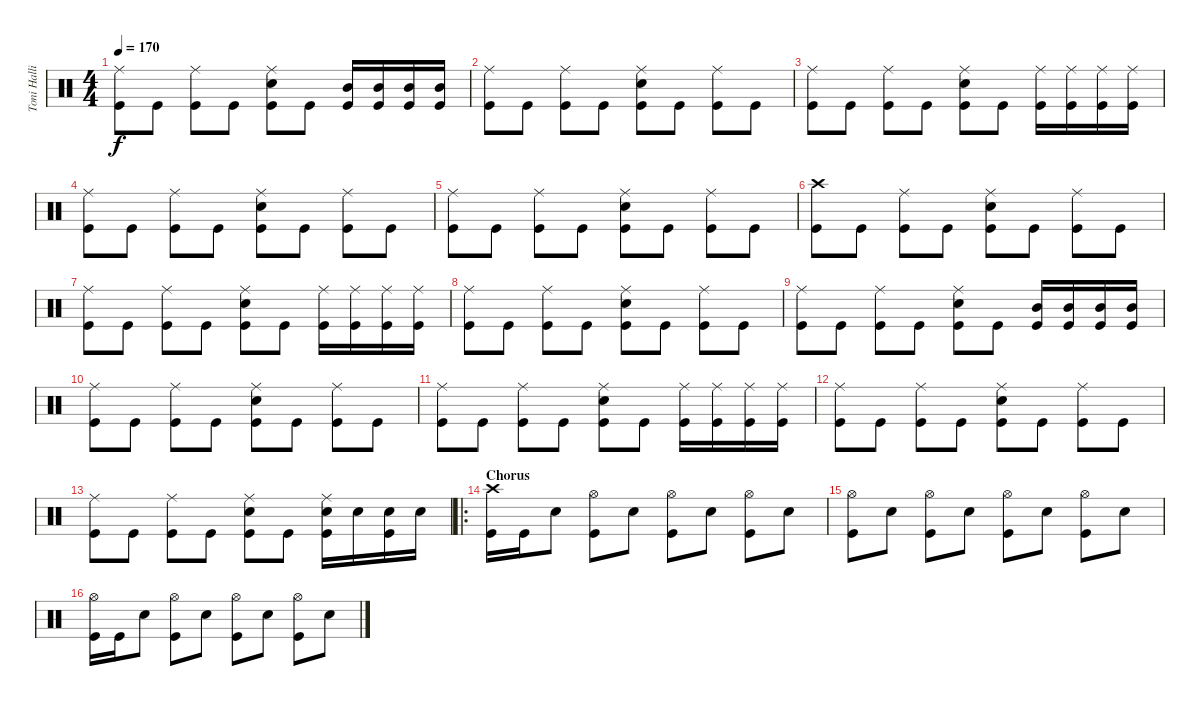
\track ("Toni Hallio" "Toni Halli") {instrument percussion}
\staff {score}
\articulation defaults
\ts (4 4)
\tempo 170
\clef neutral
\ks c
("Ride (middle)" "Kick (hit)").8{dy f} "Kick (hit)".8 ("Ride (middle)" "Kick (hit)").8 "Kick (hit)".8 ("Ride (middle)" "Snare (hit) 2" "Kick (hit)").8 "Kick (hit)".8 ("Mid Tom (hit)" "Kick (hit)").16 ("Mid Tom (hit)" "Kick (hit)").16 ("Mid Tom (hit)" "Kick (hit)").16 ("Mid Tom (hit)" "Kick (hit)").16 |
("Ride (middle)" "Kick (hit)").8 "Kick (hit)".8 ("Ride (middle)" "Kick (hit)").8 "Kick (hit)".8 ("Ride (middle)" "Snare (hit) 2" "Kick (hit)").8 "Kick (hit)".8 ("Ride (middle)" "Kick (hit)").8 "Kick (hit)".8 |
("Ride (middle)" "Kick (hit)").8 "Kick (hit)".8 ("Ride (middle)" "Kick (hit)").8 "Kick (hit)".8 ("Ride (middle)" "Snare (hit) 2" "Kick (hit)").8 "Kick (hit)".8 ("Ride (middle)" "Kick (hit)").16 ("Ride (middle)" "Kick (hit)").16 ("Ride (middle)" "Kick (hit)").16 ("Ride (middle)" "Kick (hit)").16 |
("Ride (middle)" "Kick (hit)").8 "Kick (hit)".8 ("Ride (middle)" "Kick (hit)").8 "Kick (hit)".8 ("Ride (middle)" "Snare (hit) 2" "Kick (hit)").8 "Kick (hit)".8 ("Ride (middle)" "Kick (hit)").8 "Kick (hit)".8 |
("Ride (middle)" "Kick (hit)").8 "Kick (hit)".8 ("Ride (middle)" "Kick (hit)").8 "Kick (hit)".8 ("Ride (middle)" "Snare (hit) 2" "Kick (hit)").8 "Kick (hit)".8 ("Ride (middle)" "Kick (hit)").8 "Kick (hit)".8 |
("Crash high (hit)" "Kick (hit)").8 "Kick (hit)".8 ("Ride (middle)" "Kick (hit)").8 "Kick (hit)".8 ("Ride (middle)" "Snare (hit) 2" "Kick (hit)").8 "Kick (hit)".8 ("Ride (middle)" "Kick (hit)").8 "Kick (hit)".8 |
("Ride (middle)" "Kick (hit)").8 "Kick (hit)".8 ("Ride (middle)" "Kick (hit)").8 "Kick (hit)".8 ("Ride (middle)" "Snare (hit) 2" "Kick (hit)").8 "Kick (hit)".8 ("Ride (middle)" "Kick (hit)").16 ("Ride (middle)" "Kick (hit)").16 ("Ride (middle)" "Kick (hit)").16 ("Ride (middle)" "Kick (hit)").16 |
("Ride (middle)" "Kick (hit)").8 "Kick (hit)".8 ("Ride (middle)" "Kick (hit)").8 "Kick (hit)".8 ("Ride (middle)" "Snare (hit) 2" "Kick (hit)").8 "Kick (hit)".8 ("Ride (middle)" "Kick (hit)").8 "Kick (hit)".8 |
("Ride (middle)" "Kick (hit)").8 "Kick (hit)".8 ("Ride (middle)" "Kick (hit)").8 "Kick (hit)".8 ("Ride (middle)" "Snare (hit) 2" "Kick (hit)").8 "Kick (hit)".8 ("Mid Tom (hit)" "Kick (hit)").16 ("Mid Tom (hit)" "Kick (hit)").16 ("Mid Tom (hit)" "Kick (hit)").16 ("Mid Tom (hit)" "Kick (hit)").16 |
("Ride (middle)" "Kick (hit)").8 "Kick (hit)".8 ("Ride (middle)" "Kick (hit)").8 "Kick (hit)".8 ("Ride (middle)" "Snare (hit) 2" "Kick (hit)").8 "Kick (hit)".8 ("Ride (middle)" "Kick (hit)").8 "Kick (hit)".8 |
("Ride (middle)" "Kick (hit)").8 "Kick (hit)".8 ("Ride (middle)" "Kick (hit)").8 "Kick (hit)".8 ("Ride (middle)" "Snare (hit) 2" "Kick (hit)").8 "Kick (hit)".8 ("Ride (middle)" "Kick (hit)").16 ("Ride (middle)" "Kick (hit)").16 ("Ride (middle)" "Kick (hit)").16 ("Ride (middle)" "Kick (hit)").16 |
("Ride (middle)" "Kick (hit)").8 "Kick (hit)".8 ("Ride (middle)" "Kick (hit)").8 "Kick (hit)".8 ("Ride (middle)" "Snare (hit) 2" "Kick (hit)").8 "Kick (hit)".8 ("Ride (middle)" "Kick (hit)").8 "Kick (hit)".8 |
("Ride (middle)" "Kick (hit)").8 "Kick (hit)".8 ("Ride (middle)" "Kick (hit)").8 "Kick (hit)".8 ("Ride (middle)" "Snare (hit) 2" "Kick (hit)").8 "Kick (hit)".8 ("Ride (middle)" "Snare (hit) 2" "Kick (hit)").16 "Snare (hit) 2".16 ("Snare (hit) 2" "Kick (hit)").16 "Snare (hit) 2".16 |
\ro
\section ("" "Chorus")
("Crash high (hit)" "Kick (hit)").16 "Kick (hit)".16 "Snare (hit) 2".8 ("Hi-Hat (open)" "Kick (hit)").8 "Snare (hit) 2".8 ("Hi-Hat (open)" "Kick (hit)").8 "Snare (hit) 2".8 ("Hi-Hat (open)" "Kick (hit)").8 "Snare (hit) 2".8 |
("Hi-Hat (open)" "Kick (hit)").8 "Snare (hit) 2".8 ("Hi-Hat (open)" "Kick (hit)").8 "Snare (hit) 2".8 ("Hi-Hat (open)" "Kick (hit)").8 "Snare (hit) 2".8 ("Hi-Hat (open)" "Kick (hit)").8 "Snare (hit) 2".8 |
("Hi-Hat (open)" "Kick (hit)").16 "Kick (hit)".16 "Snare (hit) 2".8 ("Hi-Hat (open)" "Kick (hit)").8 "Snare (hit) 2".8 ("Hi-Hat (open)" "Kick (hit)").8 "Snare (hit) 2".8 ("Hi-Hat (open)" "Kick (hit)").8 "Snare (hit) 2".8
